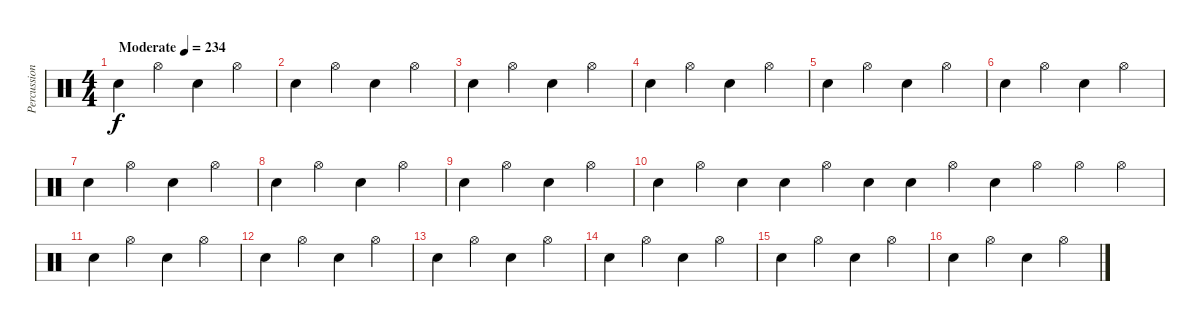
\track ("Percussion" "Percussion") {instrument percussion}
\staff {score}
\articulation defaults
\ts (4 4)
\tempo (234 "Moderate")
\clef neutral
\ks c "Snare (hit) 2".4{dy f} "Hi-Hat (open)".4 "Snare (hit) 2".4 "Hi-Hat (open)".4
|
"Snare (hit) 2".4 "Hi-Hat (open)".4 "Snare (hit) 2".4 "Hi-Hat (open)".4 |
"Snare (hit) 2".4 "Hi-Hat (open)".4 "Snare (hit) 2".4 "Hi-Hat (open)".4 |
"Snare (hit) 2".4 "Hi-Hat (open)".4 "Snare (hit) 2".4 "Hi-Hat (open)".4 |
"Snare (hit) 2".4 "Hi-Hat (open)".4 "Snare (hit) 2".4 "Hi-Hat (open)".4 |
"Snare (hit) 2".4 "Hi-Hat (open)".4 "Snare (hit) 2".4 "Hi-Hat (open)".4 |
"Snare (hit) 2".4 "Hi-Hat (open)".4 "Snare (hit) 2".4 "Hi-Hat (open)".4 |
"Snare (hit) 2".4 "Hi-Hat (open)".4 "Snare (hit) 2".4 "Hi-Hat (open)".4 |
"Snare (hit) 2".4 "Hi-Hat (open)".4 "Snare (hit) 2".4 "Hi-Hat (open)".4 |
"Snare (hit) 2".4 "Hi-Hat (open)".4 "Snare (hit) 2".4 "Snare (hit) 2".4 "Hi-Hat (open)".4 "Snare (hit) 2".4 "Snare (hit) 2".4 "Hi-Hat (open)".4 "Snare (hit) 2".4 "Hi-Hat (open)".4 "Hi-Hat (open)".4 "Hi-Hat (open)".4 |
"Snare (hit) 2".4 "Hi-Hat (open)".4 "Snare (hit) 2".4 "Hi-Hat (open)".4 |
"Snare (hit) 2".4 "Hi-Hat (open)".4 "Snare (hit) 2".4 "Hi-Hat (open)".4 |
"Snare (hit) 2".4 "Hi-Hat (open)".4 "Snare (hit) 2".4 "Hi-Hat (open)".4 |
"Snare (hit) 2".4 "Hi-Hat (open)".4 "Snare (hit) 2".4 "Hi-Hat (open)".4 |
"Snare (hit) 2".4 "Hi-Hat (open)".4 "Snare (hit) 2".4 "Hi-Hat (open)".4 |
"Snare (hit) 2".4 "Hi-Hat (open)".4 "Snare (hit) 2".4 "Hi-Hat (open)".4
